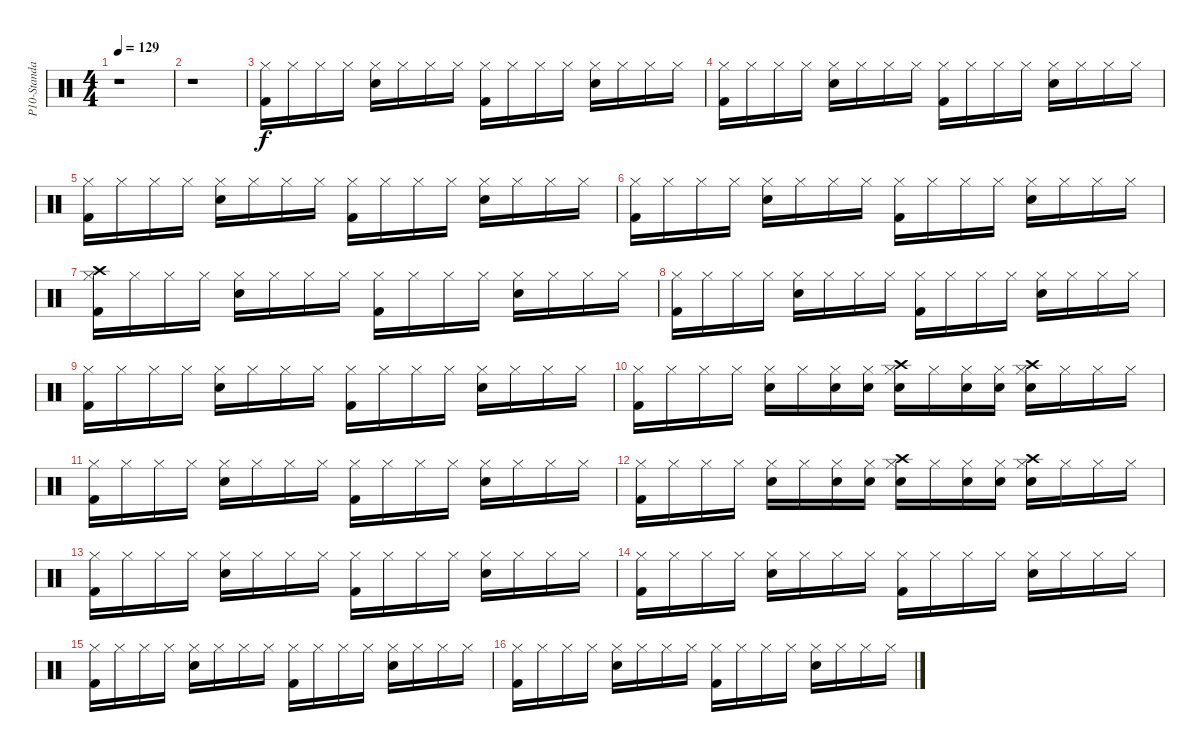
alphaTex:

\track ("P10-Standard Kit 2" "P10-Standa") {instrument percussion}
\staff {score}
\articulation defaults
\ts (4 4)
\tempo 129
\clef neutral
\ks c
r.1{dy f} |
r.1 |
("Kick (hit) 2" "Hi-Hat (closed)").16 "Hi-Hat (closed)".16 "Hi-Hat (closed)".16 "Hi-Hat (closed)".16 ("Snare (hit) 2" "Hi-Hat (closed)").16 "Hi-Hat (closed)".16 "Hi-Hat (closed)".16 "Hi-Hat (closed)".16 ("Kick (hit) 2" "Hi-Hat (closed)").16 "Hi-Hat (closed)".16 "Hi-Hat (closed)".16 "Hi-Hat (closed)".16 ("Snare (hit) 2" "Hi-Hat (closed)").16 "Hi-Hat (closed)".16 "Hi-Hat (closed)".16 "Hi-Hat (closed)".16 |
("Kick (hit) 2" "Hi-Hat (closed)").16 "Hi-Hat (closed)".16 "Hi-Hat (closed)".16 "Hi-Hat (closed)".16 ("Snare (hit) 2" "Hi-Hat (closed)").16 "Hi-Hat (closed)".16 "Hi-Hat (closed)".16 "Hi-Hat (closed)".16 ("Kick (hit) 2" "Hi-Hat (closed)").16 "Hi-Hat (closed)".16 "Hi-Hat (closed)".16 "Hi-Hat (closed)".16 ("Snare (hit) 2" "Hi-Hat (closed)").16 "Hi-Hat (closed)".16 "Hi-Hat (closed)".16 "Hi-Hat (closed)".16 |
("Kick (hit) 2" "Hi-Hat (closed)").16 "Hi-Hat (closed)".16 "Hi-Hat (closed)".16 "Hi-Hat (closed)".16 ("Snare (hit) 2" "Hi-Hat (closed)").16 "Hi-Hat (closed)".16 "Hi-Hat (closed)".16 "Hi-Hat (closed)".16 ("Kick (hit) 2" "Hi-Hat (closed)").16 "Hi-Hat (closed)".16 "Hi-Hat (closed)".16 "Hi-Hat (closed)".16 ("Snare (hit) 2" "Hi-Hat (closed)").16 "Hi-Hat (closed)".16 "Hi-Hat (closed)".16 "Hi-Hat (closed)".16 |
("Kick (hit) 2" "Hi-Hat (closed)").16 "Hi-Hat (closed)".16 "Hi-Hat (closed)".16 "Hi-Hat (closed)".16 ("Snare (hit) 2" "Hi-Hat (closed)").16 "Hi-Hat (closed)".16 "Hi-Hat (closed)".16 "Hi-Hat (closed)".16 ("Kick (hit) 2" "Hi-Hat (closed)").16 "Hi-Hat (closed)".16 "Hi-Hat (closed)".16 "Hi-Hat (closed)".16 ("Snare (hit) 2" "Hi-Hat (closed)").16 "Hi-Hat (closed)".16 "Hi-Hat (closed)".16 "Hi-Hat (closed)".16 |
("Crash high (hit)" "Kick (hit) 2" "Hi-Hat (closed)").16 "Hi-Hat (closed)".16 "Hi-Hat (closed)".16 "Hi-Hat (closed)".16 ("Snare (hit) 2" "Hi-Hat (closed)").16 "Hi-Hat (closed)".16 "Hi-Hat (closed)".16 "Hi-Hat (closed)".16 ("Kick (hit) 2" "Hi-Hat (closed)").16 "Hi-Hat (closed)".16 "Hi-Hat (closed)".16 "Hi-Hat (closed)".16 ("Snare (hit) 2" "Hi-Hat (closed)").16 "Hi-Hat (closed)".16 "Hi-Hat (closed)".16 "Hi-Hat (closed)".16 |
("Kick (hit) 2" "Hi-Hat (closed)").16 "Hi-Hat (closed)".16 "Hi-Hat (closed)".16 "Hi-Hat (closed)".16 ("Snare (hit) 2" "Hi-Hat (closed)").16 "Hi-Hat (closed)".16 "Hi-Hat (closed)".16 "Hi-Hat (closed)".16 ("Kick (hit) 2" "Hi-Hat (closed)").16 "Hi-Hat (closed)".16 "Hi-Hat (closed)".16 "Hi-Hat (closed)".16 ("Snare (hit) 2" "Hi-Hat (closed)").16 "Hi-Hat (closed)".16 "Hi-Hat (closed)".16 "Hi-Hat (closed)".16 |
("Kick (hit) 2" "Hi-Hat (closed)").16 "Hi-Hat (closed)".16 "Hi-Hat (closed)".16 "Hi-Hat (closed)".16 ("Snare (hit) 2" "Hi-Hat (closed)").16 "Hi-Hat (closed)".16 "Hi-Hat (closed)".16 "Hi-Hat (closed)".16 ("Kick (hit) 2" "Hi-Hat (closed)").16 "Hi-Hat (closed)".16 "Hi-Hat (closed)".16 "Hi-Hat (closed)".16 ("Snare (hit) 2" "Hi-Hat (closed)").16 "Hi-Hat (closed)".16 "Hi-Hat (closed)".16 "Hi-Hat (closed)".16 |
("Hi-Hat (closed)" "Kick (hit) 2").16 "Hi-Hat (closed)".16 "Hi-Hat (closed)".16 "Hi-Hat (closed)".16 ("Hi-Hat (closed)" "Snare (hit) 2").16 "Hi-Hat (closed)".16 ("Hi-Hat (closed)" "Snare (hit) 2").16 ("Hi-Hat (closed)" "Snare (hit) 2").16 ("Crash high (hit)" "Hi-Hat (closed)" "Snare (hit) 2").16 "Hi-Hat (closed)".16 ("Hi-Hat (closed)" "Snare (hit) 2").16 ("Snare (hit) 2" "Hi-Hat (closed)").16 ("Crash high (hit)" "Snare (hit) 2" "Hi-Hat (closed)").16 "Hi-Hat (closed)".16 "Hi-Hat (closed)".16 "Hi-Hat (closed)".16 |
("Kick (hit) 2" "Hi-Hat (closed)").16 "Hi-Hat (closed)".16 "Hi-Hat (closed)".16 "Hi-Hat (closed)".16 ("Snare (hit) 2" "Hi-Hat (closed)").16 "Hi-Hat (closed)".16 "Hi-Hat (closed)".16 "Hi-Hat (closed)".16 ("Kick (hit) 2" "Hi-Hat (closed)").16 "Hi-Hat (closed)".16 "Hi-Hat (closed)".16 "Hi-Hat (closed)".16 ("Snare (hit) 2" "Hi-Hat (closed)").16 "Hi-Hat (closed)".16 "Hi-Hat (closed)".16 "Hi-Hat (closed)".16 |
("Hi-Hat (closed)" "Kick (hit) 2").16 "Hi-Hat (closed)".16 "Hi-Hat (closed)".16 "Hi-Hat (closed)".16 ("Hi-Hat (closed)" "Snare (hit) 2").16 "Hi-Hat (closed)".16 ("Hi-Hat (closed)" "Snare (hit) 2").16 ("Hi-Hat (closed)" "Snare (hit) 2").16 ("Crash high (hit)" "Hi-Hat (closed)" "Snare (hit) 2").16 "Hi-Hat (closed)".16 ("Hi-Hat (closed)" "Snare (hit) 2").16 ("Snare (hit) 2" "Hi-Hat (closed)").16 ("Crash high (hit)" "Snare (hit) 2" "Hi-Hat (closed)").16 "Hi-Hat (closed)".16 "Hi-Hat (closed)".16 "Hi-Hat (closed)".16 |
("Kick (hit) 2" "Hi-Hat (closed)").16 "Hi-Hat (closed)".16 "Hi-Hat (closed)".16 "Hi-Hat (closed)".16 ("Snare (hit) 2" "Hi-Hat (closed)").16 "Hi-Hat (closed)".16 "Hi-Hat (closed)".16 "Hi-Hat (closed)".16 ("Kick (hit) 2" "Hi-Hat (closed)").16 "Hi-Hat (closed)".16 "Hi-Hat (closed)".16 "Hi-Hat (closed)".16 ("Snare (hit) 2" "Hi-Hat (closed)").16 "Hi-Hat (closed)".16 "Hi-Hat (closed)".16 "Hi-Hat (closed)".16 |
("Kick (hit) 2" "Hi-Hat (closed)").16 "Hi-Hat (closed)".16 "Hi-Hat (closed)".16 "Hi-Hat (closed)".16 ("Snare (hit) 2" "Hi-Hat (closed)").16 "Hi-Hat (closed)".16 "Hi-Hat (closed)".16 "Hi-Hat (closed)".16 ("Kick (hit) 2" "Hi-Hat (closed)").16 "Hi-Hat (closed)".16 "Hi-Hat (closed)".16 "Hi-Hat (closed)".16 ("Snare (hit) 2" "Hi-Hat (closed)").16 "Hi-Hat (closed)".16 "Hi-Hat (closed)".16 "Hi-Hat (closed)".16 |
("Kick (hit) 2" "Hi-Hat (closed)").16 "Hi-Hat (closed)".16 "Hi-Hat (closed)".16 "Hi-Hat (closed)".16 ("Snare (hit) 2" "Hi-Hat (closed)").16 "Hi-Hat (closed)".16 "Hi-Hat (closed)".16 "Hi-Hat (closed)".16 ("Kick (hit) 2" "Hi-Hat (closed)").16 "Hi-Hat (closed)".16 "Hi-Hat (closed)".16 "Hi-Hat (closed)".16 ("Snare (hit) 2" "Hi-Hat (closed)").16 "Hi-Hat (closed)".16 "Hi-Hat (closed)".16 "Hi-Hat (closed)".16 |
("Kick (hit) 2" "Hi-Hat (closed)").16 "Hi-Hat (closed)".16 "Hi-Hat (closed)".16 "Hi-Hat (closed)".16 ("Snare (hit) 2" "Hi-Hat (closed)").16 "Hi-Hat (closed)".16 "Hi-Hat (closed)".16 "Hi-Hat (closed)".16 ("Kick (hit) 2" "Hi-Hat (closed)").16 "Hi-Hat (closed)".16 "Hi-Hat (closed)".16 "Hi-Hat (closed)".16 ("Snare (hit) 2" "Hi-Hat (closed)").16 "Hi-Hat (closed)".16 "Hi-Hat (closed)".16 "Hi-Hat (closed)".16
